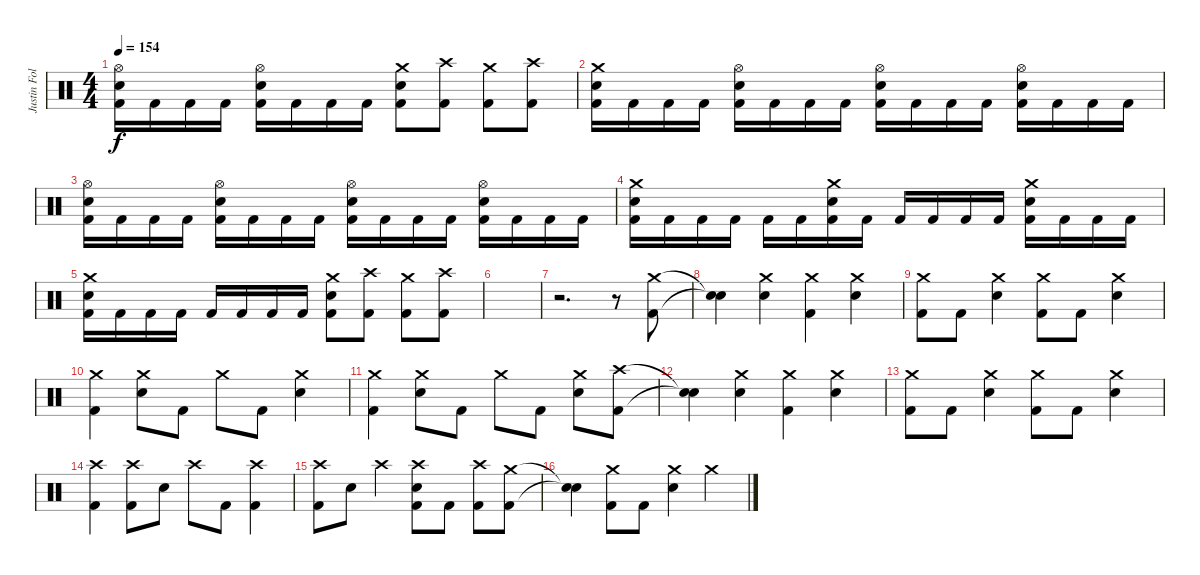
\track ("Justin Foley" "Justin Fol") {instrument percussion}
\staff {score}
\articulation defaults
\ts (4 4)
\tempo 154
\clef neutral
\ks c
("Hi-Hat (open)" "Electric Snare (hit)" "Kick (hit) 2").16{dy f} "Kick (hit) 2".16 "Kick (hit) 2".16 "Kick (hit) 2".16 ("Hi-Hat (open)" "Electric Snare (hit)" "Kick (hit) 2").16 "Kick (hit) 2".16 "Kick (hit) 2".16 "Kick (hit) 2".16 ("Crash medium (hit)" "Electric Snare (hit)" "Kick (hit) 2").8 ("Crash high (hit)" "Kick (hit) 2").8 ("Crash medium (hit)" "Kick (hit) 2").8 ("Crash high (hit)" "Kick (hit) 2").8 |
("Crash medium (hit)" "Electric Snare (hit)" "Kick (hit) 2").16 "Kick (hit) 2".16 "Kick (hit) 2".16 "Kick (hit) 2".16 ("Hi-Hat (open)" "Electric Snare (hit)" "Kick (hit) 2").16 "Kick (hit) 2".16 "Kick (hit) 2".16 "Kick (hit) 2".16 ("Hi-Hat (open)" "Electric Snare (hit)" "Kick (hit) 2").16 "Kick (hit) 2".16 "Kick (hit) 2".16 "Kick (hit) 2".16 ("Hi-Hat (open)" "Electric Snare (hit)" "Kick (hit) 2").16 "Kick (hit) 2".16 "Kick (hit) 2".16 "Kick (hit) 2".16 |
("Hi-Hat (open)" "Electric Snare (hit)" "Kick (hit) 2").16 "Kick (hit) 2".16 "Kick (hit) 2".16 "Kick (hit) 2".16 ("Hi-Hat (open)" "Electric Snare (hit)" "Kick (hit) 2").16 "Kick (hit) 2".16 "Kick (hit) 2".16 "Kick (hit) 2".16 ("Hi-Hat (open)" "Electric Snare (hit)" "Kick (hit) 2").16 "Kick (hit) 2".16 "Kick (hit) 2".16 "Kick (hit) 2".16 ("Hi-Hat (open)" "Electric Snare (hit)" "Kick (hit) 2").16 "Kick (hit) 2".16 "Kick (hit) 2".16 "Kick (hit) 2".16 |
("Crash medium (hit)" "Electric Snare (hit)" "Kick (hit) 2").16 "Kick (hit) 2".16 "Kick (hit) 2".16 "Kick (hit) 2".16 "Kick (hit) 2".16 "Kick (hit) 2".16 ("Crash medium (hit)" "Electric Snare (hit)" "Kick (hit) 2").16 "Kick (hit) 2".16 "Kick (hit) 2".16 "Kick (hit) 2".16 "Kick (hit) 2".16 "Kick (hit) 2".16 ("Crash medium (hit)" "Electric Snare (hit)" "Kick (hit) 2").16 "Kick (hit) 2".16 "Kick (hit) 2".16 "Kick (hit) 2".16 |
("Crash medium (hit)" "Electric Snare (hit)" "Kick (hit) 2").16 "Kick (hit) 2".16 "Kick (hit) 2".16 "Kick (hit) 2".16 "Kick (hit) 2".16 "Kick (hit) 2".16 "Kick (hit) 2".16 "Kick (hit) 2".16 ("Crash medium (hit)" "Electric Snare (hit)" "Kick (hit) 2").8 ("Crash high (hit)" "Kick (hit) 2").8 ("Crash medium (hit)" "Kick (hit) 2").8 ("Crash high (hit)" "Kick (hit) 2").8 |
|
r.2{d} r.8 ("Crash medium (hit)" "Kick (hit) 2").8 |
("Snare (hit)"{t} "Snare (hit)"{t}).4 ("Crash medium (hit)" "Electric Snare (hit)").4 ("Crash medium (hit)" "Kick (hit) 2").4 ("Crash medium (hit)" "Electric Snare (hit)").4 |
("Crash medium (hit)" "Kick (hit) 2").8 "Kick (hit) 2".8 ("Crash medium (hit)" "Electric Snare (hit)").4 ("Crash medium (hit)" "Kick (hit) 2").8 "Kick (hit) 2".8 ("Crash medium (hit)" "Electric Snare (hit)").4 |
("Crash medium (hit)" "Kick (hit) 2").4 ("Crash medium (hit)" "Electric Snare (hit)").8 "Kick (hit) 2".8 "Crash medium (hit)".8 "Kick (hit) 2".8 ("Crash medium (hit)" "Electric Snare (hit)").4 |
("Crash medium (hit)" "Kick (hit) 2").4 ("Crash medium (hit)" "Electric Snare (hit)").8 "Kick (hit) 2".8 "Crash medium (hit)".8 "Kick (hit) 2".8 ("Crash medium (hit)" "Electric Snare (hit)").8 ("Crash high (hit)" "Kick (hit) 2").8 |
("Snare (hit)"{t} "Snare (hit)"{t}).4 ("Crash medium (hit)" "Electric Snare (hit)").4 ("Crash medium (hit)" "Kick (hit) 2").4 ("Crash medium (hit)" "Electric Snare (hit)").4 |
("Crash medium (hit)" "Kick (hit) 2").8 "Kick (hit) 2".8 ("Crash medium (hit)" "Electric Snare (hit)").4 ("Crash medium (hit)" "Kick (hit) 2").8 "Kick (hit) 2".8 ("Crash medium (hit)" "Electric Snare (hit)").4 |
("Crash high (hit)" "Kick (hit) 2").4 ("Crash high (hit)" "Kick (hit) 2").8 "Electric Snare (hit)".8 "Crash high (hit)".8 "Kick (hit) 2".8 ("Crash high (hit)" "Kick (hit) 2").4 |
("Crash high (hit)" "Kick (hit) 2").8 "Electric Snare (hit)".8 "Crash high (hit)".4 ("Crash high (hit)" "Electric Snare (hit)" "Kick (hit) 2").8 "Kick (hit) 2".8 ("Crash high (hit)" "Kick (hit) 2").8 ("Crash medium (hit)" "Kick (hit) 2").8 |
("Snare (hit)"{t} "Snare (hit)"{t}).4 ("Crash medium (hit)" "Kick (hit) 2").8 "Kick (hit) 2".8 ("Crash medium (hit)" "Electric Snare (hit)").4 "Crash medium (hit)".4
